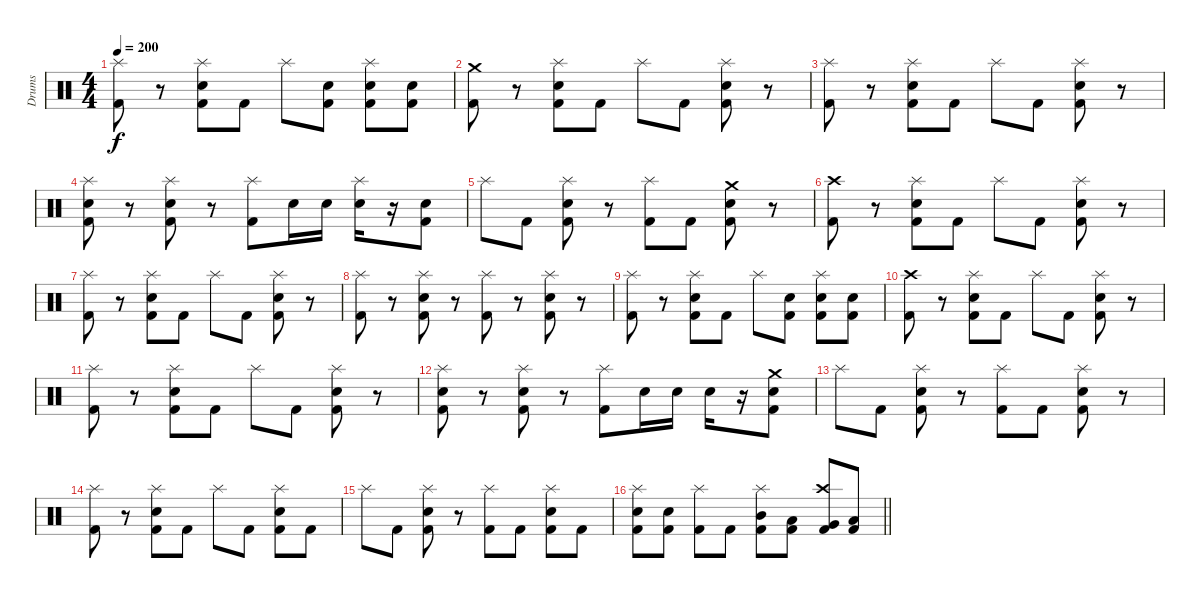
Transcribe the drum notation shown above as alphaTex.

\track ("Drums" "Drums") {instrument percussion}
\staff {score}
\articulation defaults
\ts (4 4)
\tempo 200
\clef neutral
\ks c
("Splash (hit)" "Kick (hit) 2").8{dy f} r.8 ("Splash (hit)" "Snare (hit) 2" "Kick (hit) 2").8 "Kick (hit) 2".8 "Splash (hit)".8 ("Snare (hit) 2" "Kick (hit) 2").8 ("Splash (hit)" "Snare (hit) 2" "Kick (hit) 2").8 ("Snare (hit) 2" "Kick (hit) 2").8 |
("Crash medium (hit)" "Kick (hit) 2").8 r.8 ("Splash (hit)" "Snare (hit) 2" "Kick (hit) 2").8 "Kick (hit) 2".8 "Splash (hit)".8 "Kick (hit) 2".8 ("Splash (hit)" "Snare (hit) 2" "Kick (hit) 2").8 r.8 |
("Splash (hit)" "Kick (hit) 2").8 r.8 ("Splash (hit)" "Snare (hit) 2" "Kick (hit) 2").8 "Kick (hit) 2".8 "Splash (hit)".8 "Kick (hit) 2".8 ("Splash (hit)" "Snare (hit) 2" "Kick (hit) 2").8 r.8 |
("Splash (hit)" "Snare (hit) 2" "Kick (hit) 2").8 r.8 ("Splash (hit)" "Snare (hit) 2" "Kick (hit) 2").8 r.8 ("Splash (hit)" "Kick (hit) 2").8 "Snare (hit) 2".16 "Snare (hit) 2".16 ("Splash (hit)" "Snare (hit) 2").16 r.16 ("Snare (hit) 2" "Kick (hit) 2").8 |
"Splash (hit)".8 "Kick (hit) 2".8 ("Splash (hit)" "Snare (hit) 2" "Kick (hit) 2").8 r.8 ("Splash (hit)" "Kick (hit) 2").8 "Kick (hit) 2".8 ("Crash medium (hit)" "Snare (hit) 2" "Kick (hit) 2").8 r.8 |
("Crash high (hit)" "Kick (hit) 2").8 r.8 ("Splash (hit)" "Snare (hit) 2" "Kick (hit) 2").8 "Kick (hit) 2".8 "Splash (hit)".8 "Kick (hit) 2".8 ("Splash (hit)" "Snare (hit) 2" "Kick (hit) 2").8 r.8 |
("Splash (hit)" "Kick (hit) 2").8 r.8 ("Splash (hit)" "Snare (hit) 2" "Kick (hit) 2").8 "Kick (hit) 2".8 "Splash (hit)".8 "Kick (hit) 2".8 ("Splash (hit)" "Snare (hit) 2" "Kick (hit) 2").8 r.8 |
("Splash (hit)" "Kick (hit) 2").8 r.8 ("Splash (hit)" "Snare (hit) 2" "Kick (hit) 2").8 r.8 ("Splash (hit)" "Kick (hit) 2").8 r.8 ("Splash (hit)" "Snare (hit) 2" "Kick (hit) 2").8 r.8 |
("Splash (hit)" "Kick (hit) 2").8 r.8 ("Splash (hit)" "Snare (hit) 2" "Kick (hit) 2").8 "Kick (hit) 2".8 "Splash (hit)".8 ("Snare (hit) 2" "Kick (hit) 2").8 ("Splash (hit)" "Snare (hit) 2" "Kick (hit) 2").8 ("Snare (hit) 2" "Kick (hit) 2").8 |
("Crash high (hit)" "Kick (hit) 2").8 r.8 ("Splash (hit)" "Snare (hit) 2" "Kick (hit) 2").8 "Kick (hit) 2".8 "Splash (hit)".8 "Kick (hit) 2".8 ("Splash (hit)" "Snare (hit) 2" "Kick (hit) 2").8 r.8 |
("Splash (hit)" "Kick (hit) 2").8 r.8 ("Splash (hit)" "Snare (hit) 2" "Kick (hit) 2").8 "Kick (hit) 2".8 "Splash (hit)".8 "Kick (hit) 2".8 ("Splash (hit)" "Snare (hit) 2" "Kick (hit) 2").8 r.8 |
("Splash (hit)" "Snare (hit) 2" "Kick (hit) 2").8 r.8 ("Splash (hit)" "Snare (hit) 2" "Kick (hit) 2").8 r.8 ("Splash (hit)" "Kick (hit) 2").8 "Snare (hit) 2".16 "Snare (hit) 2".16 "Snare (hit) 2".16 r.16 ("Crash medium (hit)" "Snare (hit) 2" "Kick (hit) 2").8 |
"Splash (hit)".8 "Kick (hit) 2".8 ("Splash (hit)" "Snare (hit) 2" "Kick (hit) 2").8 r.8 ("Splash (hit)" "Kick (hit) 2").8 "Kick (hit) 2".8 ("Splash (hit)" "Snare (hit) 2" "Kick (hit) 2").8 r.8 |
("Splash (hit)" "Kick (hit) 2").8 r.8 ("Splash (hit)" "Snare (hit) 2" "Kick (hit) 2").8 "Kick (hit) 2".8 "Splash (hit)".8 "Kick (hit) 2".8 ("Splash (hit)" "Snare (hit) 2" "Kick (hit) 2").8 "Kick (hit) 2".8 |
"Splash (hit)".8 "Kick (hit) 2".8 ("Splash (hit)" "Snare (hit) 2" "Kick (hit) 2").8 r.8 ("Splash (hit)" "Kick (hit) 2").8 "Kick (hit) 2".8 ("Splash (hit)" "Snare (hit) 2" "Kick (hit) 2").8 "Kick (hit) 2".8 |
\barLineRight lightlight
("Splash (hit)" "Snare (hit) 2" "Kick (hit) 2").8 ("Snare (hit) 2" "Kick (hit) 2").8 ("Splash (hit)" "Kick (hit) 2").8 "Kick (hit) 2".8 ("Splash (hit)" "Mid Tom (hit)" "Kick (hit) 2").8 ("Low Tom (hit)" "Kick (hit) 2").8 ("Crash high (hit)" "Very Low Tom (hit)" "Kick (hit) 2").8 ("Low Floor Tom (hit)" "Kick (hit) 2").8
